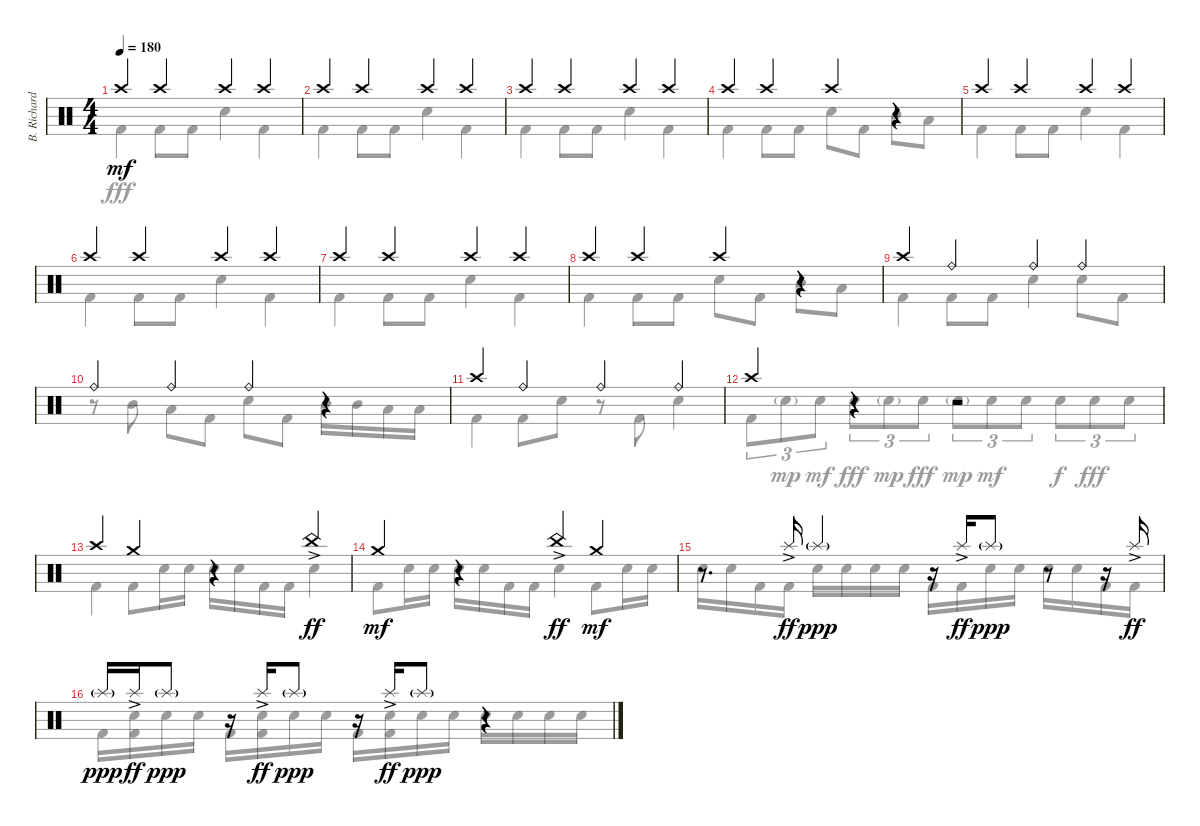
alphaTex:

\track ("B. Richardson Drums" "B. Richard") {instrument percussion}
\staff {score}
\articulation defaults
\voice
\ts (4 4)
\tempo 180
\clef neutral
\ks c "Crash high (hit)".4{dy mf} "Crash high (hit)".4 "Crash high (hit)".4 "Crash high (hit)".4
|
"Crash high (hit)".4 "Crash high (hit)".4 "Crash high (hit)".4 "Crash high (hit)".4 |
"Crash high (hit)".4 "Crash high (hit)".4 "Crash high (hit)".4 "Crash high (hit)".4 |
"Crash high (hit)".4 "Crash high (hit)".4 "Crash high (hit)".4 r.4 |
"Crash high (hit)".4 "Crash high (hit)".4 "Crash high (hit)".4 "Crash high (hit)".4 |
"Crash high (hit)".4 "Crash high (hit)".4 "Crash high (hit)".4 "Crash high (hit)".4 |
"Crash high (hit)".4 "Crash high (hit)".4 "Crash high (hit)".4 "Crash high (hit)".4 |
"Crash high (hit)".4 "Crash high (hit)".4 "Crash high (hit)".4 r.4 |
"Crash high (hit)".4 "Ride (bell)".4 "Ride (bell)".4 "Ride (bell)".4 |
"Ride (bell)".4 "Ride (bell)".4 "Ride (bell)".4 r.4 |
"Crash high (hit)".4 "Ride (bell)".4 "Ride (bell)".4 "Ride (bell)".4 |
"Crash high (hit)".4 r.4 r.2 |
"Crash high (hit)".4 "Crash medium (hit)".4 r.4 "China (hit)"{ac}.4{dy ff} |
"Crash medium (hit)".4{dy mf} r.4 "China (hit)"{ac}.4{dy ff} "Crash medium (hit)".4{dy mf} |
r.8{d} "Splash (hit)"{ac}.16{dy ff} "Splash (hit)"{g}.4{dy ppp} r.16 "Splash (hit)"{ac}.16{dy ff} "Splash (hit)"{g}.8{dy ppp} r.8 r.16 "Splash (hit)"{ac}.16{dy ff} |
"Splash (hit)"{g}.16{dy ppp} "Splash (hit)"{ac}.16{dy ff} "Splash (hit)"{g}.8{dy ppp} r.16 "Splash (hit)"{ac}.16{dy ff} "Splash (hit)"{g}.8{dy ppp} r.16 "Splash (hit)"{ac}.16{dy ff} "Splash (hit)"{g}.8{dy ppp} r.4
\voice
\clef neutral
\ottava regular
\simile none
\ks c "Kick (hit) 2".4{dy fff} "Kick (hit) 2".8 "Kick (hit) 2".8 "Electric Snare (hit)".4 "Kick (hit) 2".4
|
"Kick (hit) 2".4 "Kick (hit) 2".8 "Kick (hit) 2".8 "Electric Snare (hit)".4 "Kick (hit) 2".4 |
"Kick (hit) 2".4 "Kick (hit) 2".8 "Kick (hit) 2".8 "Electric Snare (hit)".4 "Kick (hit) 2".4 |
"Kick (hit) 2".4 "Kick (hit) 2".8 "Kick (hit) 2".8 "Electric Snare (hit)".8 "Kick (hit) 2".8 "Mid Tom (hit)".8 "Low Tom (hit)".8 |
"Kick (hit) 2".4 "Kick (hit) 2".8 "Kick (hit) 2".8 "Electric Snare (hit)".4 "Kick (hit) 2".4 |
"Kick (hit) 2".4 "Kick (hit) 2".8 "Kick (hit) 2".8 "Electric Snare (hit)".4 "Kick (hit) 2".4 |
"Kick (hit) 2".4 "Kick (hit) 2".8 "Kick (hit) 2".8 "Electric Snare (hit)".4 "Kick (hit) 2".4 |
"Kick (hit) 2".4 "Kick (hit) 2".8 "Kick (hit) 2".8 "Electric Snare (hit)".8 "Kick (hit) 2".8 "Mid Tom (hit)".8 "Low Tom (hit)".8 |
"Kick (hit) 2".4 "Kick (hit) 2".8 "Kick (hit) 2".8 "Electric Snare (hit)".4 "Electric Snare (hit)".8 "Kick (hit) 2".8 |
r.8 "Mid Tom (hit)".8 "Low Tom (hit)".8 "Kick (hit) 2".8 "Electric Snare (hit)".8 "Kick (hit) 2".8 "Mid Tom (hit)".16 "Mid Tom (hit)".16 "Low Tom (hit)".16 "Low Tom (hit)".16 |
"Kick (hit) 2".4 "Kick (hit) 2".8 "Electric Snare (hit)".8 r.8 "Kick (hit) 2".8 "Electric Snare (hit)".4 |
"Kick (hit) 2".8{tu (3 2)} "Electric Snare (hit)"{g}.8{tu (3 2) dy mp} "Electric Snare (hit)".8{tu (3 2) dy mf} "Electric Snare (hit)".8{tu (3 2) dy fff} "Electric Snare (hit)"{g}.8{tu (3 2) dy mp} "Electric Snare (hit)".8{tu (3 2) dy fff} "Electric Snare (hit)"{g}.8{tu (3 2) dy mp} "Electric Snare (hit)".8{tu (3 2) dy mf} "Electric Snare (hit)".8{tu (3 2)} "Electric Snare (hit)".8{tu (3 2) dy f} "Electric Snare (hit)".8{tu (3 2) dy fff} "Electric Snare (hit)".8{tu (3 2)} |
"Kick (hit) 2".4 "Kick (hit) 2".8 "Electric Snare (hit)".16 "Electric Snare (hit)".16 "Electric Snare (hit)".16 "Electric Snare (hit)".16 "Kick (hit) 2".16 "Kick (hit) 2".16 "Electric Snare (hit)".4 |
"Kick (hit) 2".8 "Electric Snare (hit)".16 "Electric Snare (hit)".16 "Electric Snare (hit)".16 "Electric Snare (hit)".16 "Kick (hit) 2".16 "Kick (hit) 2".16 "Electric Snare (hit)".4 "Kick (hit) 2".8 "Electric Snare (hit)".16 "Electric Snare (hit)".16 |
"Electric Snare (hit)".16 "Electric Snare (hit)".16 "Kick (hit) 2".16 "Kick (hit) 2".16 "Electric Snare (hit)".16 "Electric Snare (hit)".16 "Electric Snare (hit)".16 "Electric Snare (hit)".16 "Kick (hit) 2".16 "Kick (hit) 2".16 "Electric Snare (hit)".16 "Electric Snare (hit)".16 "Electric Snare (hit)".16 "Electric Snare (hit)".16 "Kick (hit) 2".16 "Kick (hit) 2".16 |
"Kick (hit) 2".16 ("Electric Snare (hit)" "Kick (hit) 2").16 "Electric Snare (hit)".16 "Electric Snare (hit)".16 "Kick (hit) 2".16 ("Electric Snare (hit)" "Kick (hit) 2").16 "Electric Snare (hit)".16 "Electric Snare (hit)".16 "Kick (hit) 2".16 ("Electric Snare (hit)" "Kick (hit) 2").16 "Electric Snare (hit)".16 "Electric Snare (hit)".16 "Electric Snare (hit)".16 "Electric Snare (hit)".16 "Electric Snare (hit)".16 "Electric Snare (hit)".16
